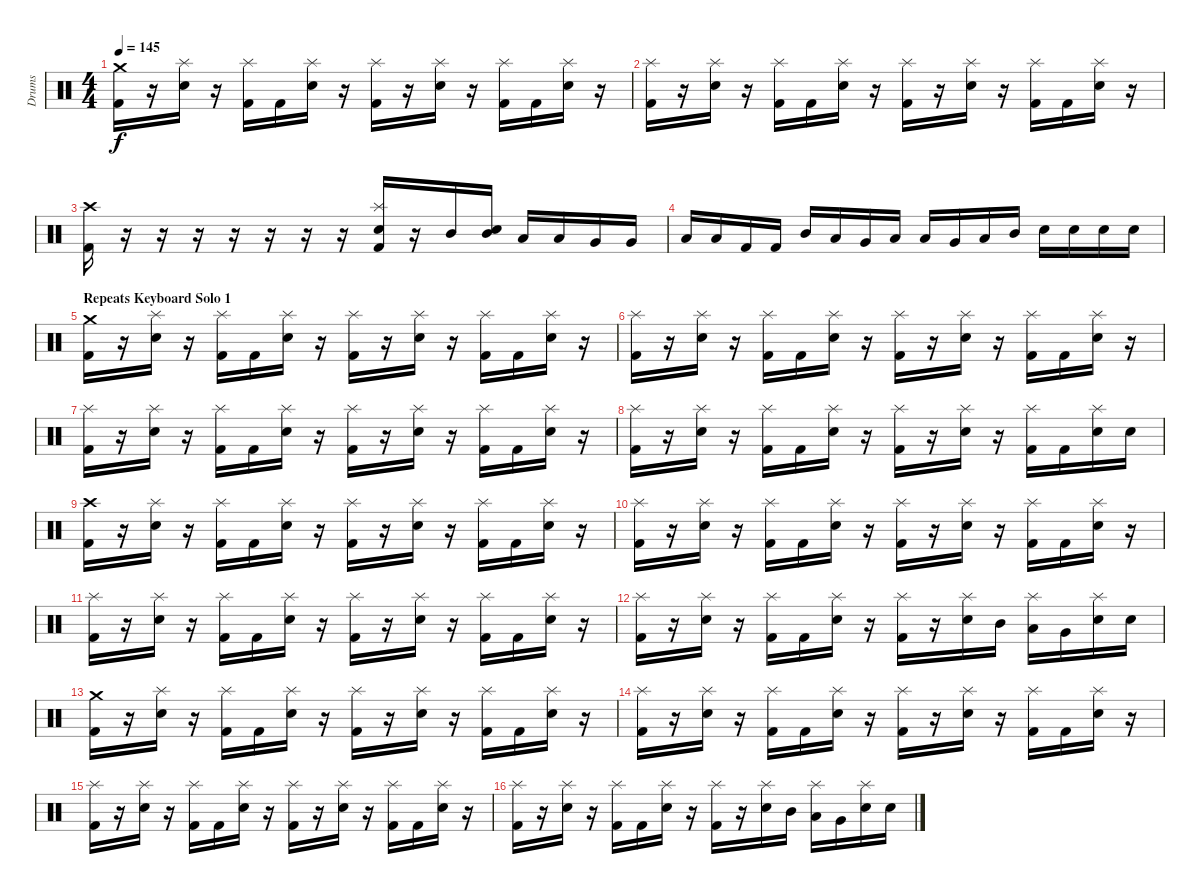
\track ("Drums" "Drums") {instrument percussion}
\staff {score}
\articulation defaults
\ts (4 4)
\tempo 145
\clef neutral
\ks c
("Crash medium (hit)" "Kick (hit) 2").16{dy f} r.16 ("Splash (hit)" "Snare (hit) 2").16 r.16 ("Splash (hit)" "Kick (hit) 2").16 "Kick (hit) 2".16 ("Splash (hit)" "Snare (hit) 2").16 r.16 ("Splash (hit)" "Kick (hit) 2").16 r.16 ("Splash (hit)" "Snare (hit) 2").16 r.16 ("Splash (hit)" "Kick (hit) 2").16 "Kick (hit) 2".16 ("Splash (hit)" "Snare (hit) 2").16 r.16 |
("Splash (hit)" "Kick (hit) 2").16 r.16 ("Splash (hit)" "Snare (hit) 2").16 r.16 ("Splash (hit)" "Kick (hit) 2").16 "Kick (hit) 2".16 ("Splash (hit)" "Snare (hit) 2").16 r.16 ("Splash (hit)" "Kick (hit) 2").16 r.16 ("Splash (hit)" "Snare (hit) 2").16 r.16 ("Splash (hit)" "Kick (hit) 2").16 "Kick (hit) 2".16 ("Splash (hit)" "Snare (hit) 2").16 r.16 |
("Crash high (hit)" "Kick (hit) 2").16 r.16 r.16 r.16 r.16 r.16 r.16 r.16 ("Splash (hit)" "Snare (hit) 2" "Kick (hit) 2").16 r.16 "Mid Tom (hit)".16 ("Mid Tom (hit)" "Snare (hit) 2").16 "Low Tom (hit)".16 "Low Tom (hit)".16 "Very Low Tom (hit)".16 "Very Low Tom (hit)".16 |
"Low Floor Tom (hit)".16 "Low Floor Tom (hit)".16 "Kick (hit) 2".16 "Kick (hit) 2".16 "Mid Tom (hit)".16 "Low Tom (hit)".16 "Very Low Tom (hit)".16 "Low Floor Tom (hit)".16 "Low Floor Tom (hit)".16 "Very Low Tom (hit)".16 "Low Tom (hit)".16 "Mid Tom (hit)".16 "Snare (hit) 2".16 "Snare (hit) 2".16 "Snare (hit) 2".16 "Snare (hit) 2".16 |
\section ("" "Repeats Keyboard Solo 1")
("Crash medium (hit)" "Kick (hit) 2").16 r.16 ("Splash (hit)" "Snare (hit) 2").16 r.16 ("Splash (hit)" "Kick (hit) 2").16 "Kick (hit) 2".16 ("Splash (hit)" "Snare (hit) 2").16 r.16 ("Splash (hit)" "Kick (hit) 2").16 r.16 ("Splash (hit)" "Snare (hit) 2").16 r.16 ("Splash (hit)" "Kick (hit) 2").16 "Kick (hit) 2".16 ("Splash (hit)" "Snare (hit) 2").16 r.16 |
("Splash (hit)" "Kick (hit) 2").16 r.16 ("Splash (hit)" "Snare (hit) 2").16 r.16 ("Splash (hit)" "Kick (hit) 2").16 "Kick (hit) 2".16 ("Splash (hit)" "Snare (hit) 2").16 r.16 ("Splash (hit)" "Kick (hit) 2").16 r.16 ("Splash (hit)" "Snare (hit) 2").16 r.16 ("Splash (hit)" "Kick (hit) 2").16 "Kick (hit) 2".16 ("Splash (hit)" "Snare (hit) 2").16 r.16 |
("Splash (hit)" "Kick (hit) 2").16 r.16 ("Splash (hit)" "Snare (hit) 2").16 r.16 ("Splash (hit)" "Kick (hit) 2").16 "Kick (hit) 2".16 ("Splash (hit)" "Snare (hit) 2").16 r.16 ("Splash (hit)" "Kick (hit) 2").16 r.16 ("Splash (hit)" "Snare (hit) 2").16 r.16 ("Splash (hit)" "Kick (hit) 2").16 "Kick (hit) 2".16 ("Splash (hit)" "Snare (hit) 2").16 r.16 |
("Splash (hit)" "Kick (hit) 2").16 r.16 ("Splash (hit)" "Snare (hit) 2").16 r.16 ("Splash (hit)" "Kick (hit) 2").16 "Kick (hit) 2".16 ("Splash (hit)" "Snare (hit) 2").16 r.16 ("Splash (hit)" "Kick (hit) 2").16 r.16 ("Splash (hit)" "Snare (hit) 2").16 r.16 ("Splash (hit)" "Kick (hit) 2").16 "Kick (hit) 2".16 ("Splash (hit)" "Snare (hit) 2").16 "Snare (hit) 2".16 |
("Crash high (hit)" "Kick (hit) 2").16 r.16 ("Splash (hit)" "Snare (hit) 2").16 r.16 ("Splash (hit)" "Kick (hit) 2").16 "Kick (hit) 2".16 ("Splash (hit)" "Snare (hit) 2").16 r.16 ("Splash (hit)" "Kick (hit) 2").16 r.16 ("Splash (hit)" "Snare (hit) 2").16 r.16 ("Splash (hit)" "Kick (hit) 2").16 "Kick (hit) 2".16 ("Splash (hit)" "Snare (hit) 2").16 r.16 |
("Splash (hit)" "Kick (hit) 2").16 r.16 ("Splash (hit)" "Snare (hit) 2").16 r.16 ("Splash (hit)" "Kick (hit) 2").16 "Kick (hit) 2".16 ("Splash (hit)" "Snare (hit) 2").16 r.16 ("Splash (hit)" "Kick (hit) 2").16 r.16 ("Splash (hit)" "Snare (hit) 2").16 r.16 ("Splash (hit)" "Kick (hit) 2").16 "Kick (hit) 2".16 ("Splash (hit)" "Snare (hit) 2").16 r.16 |
("Splash (hit)" "Kick (hit) 2").16 r.16 ("Splash (hit)" "Snare (hit) 2").16 r.16 ("Splash (hit)" "Kick (hit) 2").16 "Kick (hit) 2".16 ("Splash (hit)" "Snare (hit) 2").16 r.16 ("Splash (hit)" "Kick (hit) 2").16 r.16 ("Splash (hit)" "Snare (hit) 2").16 r.16 ("Splash (hit)" "Kick (hit) 2").16 "Kick (hit) 2".16 ("Splash (hit)" "Snare (hit) 2").16 r.16 |
("Splash (hit)" "Kick (hit) 2").16 r.16 ("Splash (hit)" "Snare (hit) 2").16 r.16 ("Splash (hit)" "Kick (hit) 2").16 "Kick (hit) 2".16 ("Splash (hit)" "Snare (hit) 2").16 r.16 ("Splash (hit)" "Kick (hit) 2").16 r.16 ("Splash (hit)" "Snare (hit) 2").16 "Mid Tom (hit)".16 ("Splash (hit)" "Low Tom (hit)").16 "Very Low Tom (hit)".16 ("Splash (hit)" "Snare (hit) 2").16 "Snare (hit) 2".16 |
("Crash medium (hit)" "Kick (hit) 2").16 r.16 ("Splash (hit)" "Snare (hit) 2").16 r.16 ("Splash (hit)" "Kick (hit) 2").16 "Kick (hit) 2".16 ("Splash (hit)" "Snare (hit) 2").16 r.16 ("Splash (hit)" "Kick (hit) 2").16 r.16 ("Splash (hit)" "Snare (hit) 2").16 r.16 ("Splash (hit)" "Kick (hit) 2").16 "Kick (hit) 2".16 ("Splash (hit)" "Snare (hit) 2").16 r.16 |
("Splash (hit)" "Kick (hit) 2").16 r.16 ("Splash (hit)" "Snare (hit) 2").16 r.16 ("Splash (hit)" "Kick (hit) 2").16 "Kick (hit) 2".16 ("Splash (hit)" "Snare (hit) 2").16 r.16 ("Splash (hit)" "Kick (hit) 2").16 r.16 ("Splash (hit)" "Snare (hit) 2").16 r.16 ("Splash (hit)" "Kick (hit) 2").16 "Kick (hit) 2".16 ("Splash (hit)" "Snare (hit) 2").16 r.16 |
("Splash (hit)" "Kick (hit) 2").16 r.16 ("Splash (hit)" "Snare (hit) 2").16 r.16 ("Splash (hit)" "Kick (hit) 2").16 "Kick (hit) 2".16 ("Splash (hit)" "Snare (hit) 2").16 r.16 ("Splash (hit)" "Kick (hit) 2").16 r.16 ("Splash (hit)" "Snare (hit) 2").16 r.16 ("Splash (hit)" "Kick (hit) 2").16 "Kick (hit) 2".16 ("Splash (hit)" "Snare (hit) 2").16 r.16 |
("Splash (hit)" "Kick (hit) 2").16 r.16 ("Splash (hit)" "Snare (hit) 2").16 r.16 ("Splash (hit)" "Kick (hit) 2").16 "Kick (hit) 2".16 ("Splash (hit)" "Snare (hit) 2").16 r.16 ("Splash (hit)" "Kick (hit) 2").16 r.16 ("Splash (hit)" "Snare (hit) 2").16 "Mid Tom (hit)".16 ("Splash (hit)" "Low Tom (hit)").16 "Very Low Tom (hit)".16 ("Splash (hit)" "Snare (hit) 2").16 "Snare (hit) 2".16
